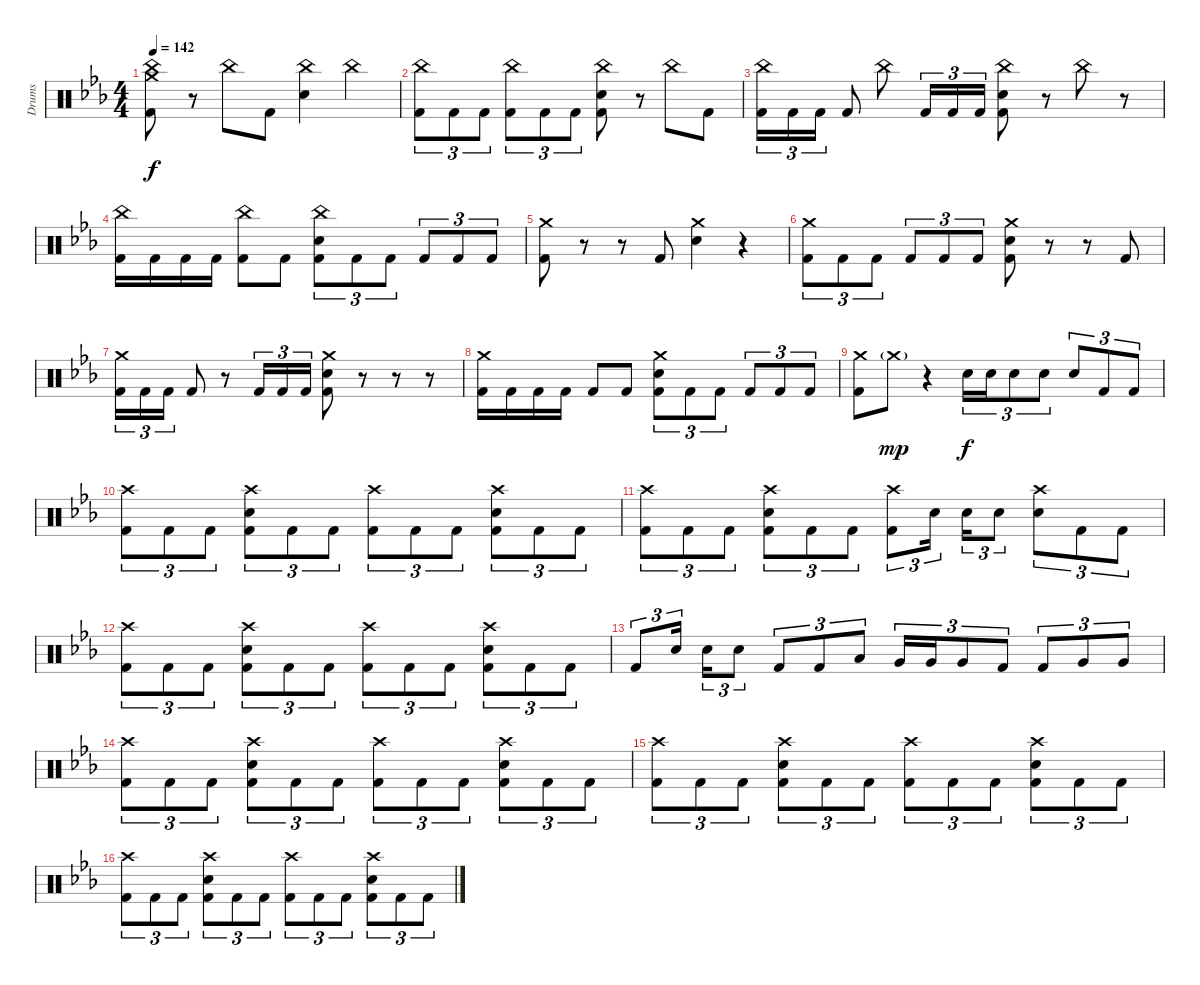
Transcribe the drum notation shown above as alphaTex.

\track ("Drums" "Drums") {instrument percussion}
\staff {score}
\articulation defaults
\ts (4 4)
\tempo 142
\clef neutral
\ks cminor
("Crash medium (hit)" "China (hit)" "Kick (hit) 2").8{dy f} r.8 "China (hit)".8 "Kick (hit) 2".8 ("China (hit)" "Electric Snare (hit)").4 "China (hit)".4 |
("China (hit)" "Kick (hit) 2").8{tu (3 2)} "Kick (hit) 2".8{tu (3 2)} "Kick (hit) 2".8{tu (3 2)} ("China (hit)" "Kick (hit) 2").8{tu (3 2)} "Kick (hit) 2".8{tu (3 2)} "Kick (hit) 2".8{tu (3 2)} ("China (hit)" "Electric Snare (hit)" "Kick (hit) 2").8 r.8 "China (hit)".8 "Kick (hit) 2".8 |
("China (hit)" "Kick (hit) 2").16{tu (3 2)} "Kick (hit) 2".16{tu (3 2)} "Kick (hit) 2".16{tu (3 2)} "Kick (hit) 2".8 "China (hit)".8 "Kick (hit) 2".16{tu (3 2)} "Kick (hit) 2".16{tu (3 2)} "Kick (hit) 2".16{tu (3 2)} ("China (hit)" "Electric Snare (hit)" "Kick (hit) 2").8 r.8 "China (hit)".8 r.8 |
("China (hit)" "Kick (hit) 2").16 "Kick (hit) 2".16 "Kick (hit) 2".16 "Kick (hit) 2".16 ("China (hit)" "Kick (hit) 2").8 "Kick (hit) 2".8 ("China (hit)" "Electric Snare (hit)" "Kick (hit) 2").8{tu (3 2)} "Kick (hit) 2".8{tu (3 2)} "Kick (hit) 2".8{tu (3 2)} "Kick (hit) 2".8{tu (3 2)} "Kick (hit) 2".8{tu (3 2)} "Kick (hit) 2".8{tu (3 2)} |
("Crash medium (hit)" "Kick (hit) 2").8 r.8 r.8 "Kick (hit) 2".8 ("Crash medium (hit)" "Electric Snare (hit)").4 r.4 |
("Crash medium (hit)" "Kick (hit) 2").8{tu (3 2)} "Kick (hit) 2".8{tu (3 2)} "Kick (hit) 2".8{tu (3 2)} "Kick (hit) 2".8{tu (3 2)} "Kick (hit) 2".8{tu (3 2)} "Kick (hit) 2".8{tu (3 2)} ("Crash medium (hit)" "Electric Snare (hit)" "Kick (hit) 2").8 r.8 r.8 "Kick (hit) 2".8 |
("Crash medium (hit)" "Kick (hit) 2").16{tu (3 2)} "Kick (hit) 2".16{tu (3 2)} "Kick (hit) 2".16{tu (3 2)} "Kick (hit) 2".8 r.8 "Kick (hit) 2".16{tu (3 2)} "Kick (hit) 2".16{tu (3 2)} "Kick (hit) 2".16{tu (3 2)} ("Crash medium (hit)" "Electric Snare (hit)" "Kick (hit) 2").8 r.8 r.8 r.8 |
("Crash medium (hit)" "Kick (hit) 2").16 "Kick (hit) 2".16 "Kick (hit) 2".16 "Kick (hit) 2".16 "Kick (hit) 2".8 "Kick (hit) 2".8 ("Crash medium (hit)" "Electric Snare (hit)" "Kick (hit) 2").8{tu (3 2)} "Kick (hit) 2".8{tu (3 2)} "Kick (hit) 2".8{tu (3 2)} "Kick (hit) 2".8{tu (3 2)} "Kick (hit) 2".8{tu (3 2)} "Kick (hit) 2".8{tu (3 2)} |
("Crash medium (hit)" "Kick (hit) 2").8 "Crash medium (hit)"{g}.8{dy mp} r.4 "Electric Snare (hit)".16{tu (3 2) dy f} "Electric Snare (hit)".16{tu (3 2)} "Electric Snare (hit)".8{tu (3 2)} "Electric Snare (hit)".8{tu (3 2)} "Electric Snare (hit)".8{tu (3 2)} "Kick (hit) 2".8{tu (3 2)} "Kick (hit) 2".8{tu (3 2)} |
("Crash high (hit)" "Kick (hit) 2").8{tu (3 2)} "Kick (hit) 2".8{tu (3 2)} "Kick (hit) 2".8{tu (3 2)} ("Crash high (hit)" "Electric Snare (hit)" "Kick (hit) 2").8{tu (3 2)} "Kick (hit) 2".8{tu (3 2)} "Kick (hit) 2".8{tu (3 2)} ("Crash high (hit)" "Kick (hit) 2").8{tu (3 2)} "Kick (hit) 2".8{tu (3 2)} "Kick (hit) 2".8{tu (3 2)} ("Crash high (hit)" "Electric Snare (hit)" "Kick (hit) 2").8{tu (3 2)} "Kick (hit) 2".8{tu (3 2)} "Kick (hit) 2".8{tu (3 2)} |
("Crash high (hit)" "Kick (hit) 2").8{tu (3 2)} "Kick (hit) 2".8{tu (3 2)} "Kick (hit) 2".8{tu (3 2)} ("Crash high (hit)" "Electric Snare (hit)" "Kick (hit) 2").8{tu (3 2)} "Kick (hit) 2".8{tu (3 2)} "Kick (hit) 2".8{tu (3 2)} ("Crash high (hit)" "Kick (hit) 2").8{tu (3 2)} "Electric Snare (hit)".16{tu (3 2) beam splitsecondary} "Electric Snare (hit)".16{tu (3 2)} "Electric Snare (hit)".8{tu (3 2)} ("Crash high (hit)" "Electric Snare (hit)").8{tu (3 2)} "Kick (hit) 2".8{tu (3 2)} "Kick (hit) 2".8{tu (3 2)} |
("Crash high (hit)" "Kick (hit) 2").8{tu (3 2)} "Kick (hit) 2".8{tu (3 2)} "Kick (hit) 2".8{tu (3 2)} ("Crash high (hit)" "Electric Snare (hit)" "Kick (hit) 2").8{tu (3 2)} "Kick (hit) 2".8{tu (3 2)} "Kick (hit) 2".8{tu (3 2)} ("Crash high (hit)" "Kick (hit) 2").8{tu (3 2)} "Kick (hit) 2".8{tu (3 2)} "Kick (hit) 2".8{tu (3 2)} ("Crash high (hit)" "Electric Snare (hit)" "Kick (hit) 2").8{tu (3 2)} "Kick (hit) 2".8{tu (3 2)} "Kick (hit) 2".8{tu (3 2)} |
"Kick (hit) 2".8{tu (3 2)} "Electric Snare (hit)".16{tu (3 2) beam splitsecondary} "Electric Snare (hit)".16{tu (3 2)} "Electric Snare (hit)".8{tu (3 2)} "Kick (hit) 2".8{tu (3 2)} "Kick (hit) 2".8{tu (3 2)} "Low Tom (hit)".8{tu (3 2)} "Very Low Tom (hit)".16{tu (3 2)} "Very Low Tom (hit)".16{tu (3 2)} "Very Low Tom (hit)".8{tu (3 2)} "Kick (hit) 2".8{tu (3 2)} "Kick (hit) 2".8{tu (3 2)} "Very Low Tom (hit)".8{tu (3 2)} "Very Low Tom (hit)".8{tu (3 2)} |
("Crash high (hit)" "Kick (hit) 2").8{tu (3 2)} "Kick (hit) 2".8{tu (3 2)} "Kick (hit) 2".8{tu (3 2)} ("Crash high (hit)" "Electric Snare (hit)" "Kick (hit) 2").8{tu (3 2)} "Kick (hit) 2".8{tu (3 2)} "Kick (hit) 2".8{tu (3 2)} ("Crash high (hit)" "Kick (hit) 2").8{tu (3 2)} "Kick (hit) 2".8{tu (3 2)} "Kick (hit) 2".8{tu (3 2)} ("Crash high (hit)" "Electric Snare (hit)" "Kick (hit) 2").8{tu (3 2)} "Kick (hit) 2".8{tu (3 2)} "Kick (hit) 2".8{tu (3 2)} |
("Crash high (hit)" "Kick (hit) 2").8{tu (3 2)} "Kick (hit) 2".8{tu (3 2)} "Kick (hit) 2".8{tu (3 2)} ("Crash high (hit)" "Electric Snare (hit)" "Kick (hit) 2").8{tu (3 2)} "Kick (hit) 2".8{tu (3 2)} "Kick (hit) 2".8{tu (3 2)} ("Crash high (hit)" "Kick (hit) 2").8{tu (3 2)} "Kick (hit) 2".8{tu (3 2)} "Kick (hit) 2".8{tu (3 2)} ("Crash high (hit)" "Electric Snare (hit)" "Kick (hit) 2").8{tu (3 2)} "Kick (hit) 2".8{tu (3 2)} "Kick (hit) 2".8{tu (3 2)} |
("Crash high (hit)" "Kick (hit) 2").8{tu (3 2)} "Kick (hit) 2".8{tu (3 2)} "Kick (hit) 2".8{tu (3 2)} ("Crash high (hit)" "Electric Snare (hit)" "Kick (hit) 2").8{tu (3 2)} "Kick (hit) 2".8{tu (3 2)} "Kick (hit) 2".8{tu (3 2)} ("Crash high (hit)" "Kick (hit) 2").8{tu (3 2)} "Kick (hit) 2".8{tu (3 2)} "Kick (hit) 2".8{tu (3 2)} ("Crash high (hit)" "Electric Snare (hit)" "Kick (hit) 2").8{tu (3 2)} "Kick (hit) 2".8{tu (3 2)} "Kick (hit) 2".8{tu (3 2)}
